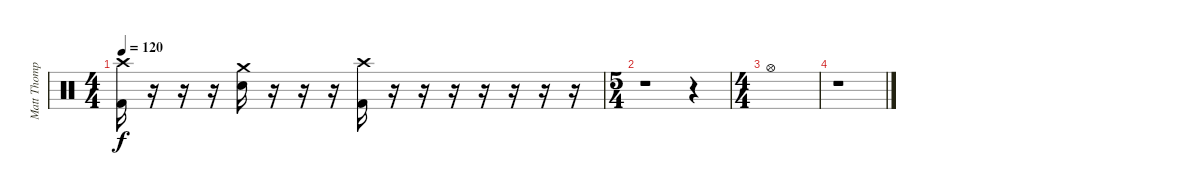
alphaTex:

\track ("Matt Thompson" "Matt Thomp") {instrument percussion}
\staff {score}
\articulation defaults
\ts (4 4)
\tempo 120
\clef neutral
\ks c
("Crash high (hit)" "Kick (hit) 2").16{dy f} r.16 r.16 r.16 ("Crash medium (hit)" "Snare (hit) 2").16 r.16 r.16 r.16 ("Crash high (hit)" "Kick (hit) 2").16 r.16 r.16 r.16 r.16 r.16 r.16 r.16 |
\ts (5 4)
r.1 r.4 |
\ts (4 4)
"Hi-Hat (open)".1 |
r.1
